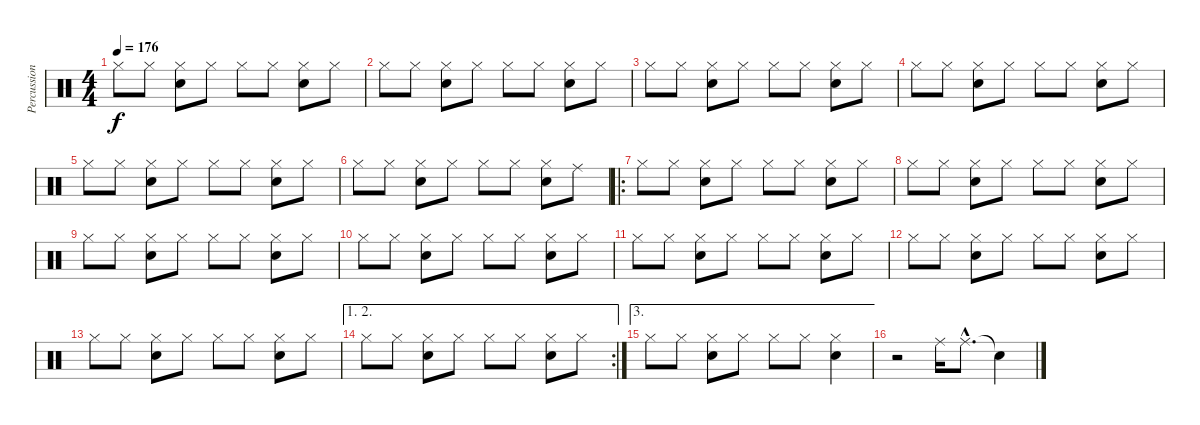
\track ("Percussions" "Percussion") {instrument percussion}
\staff {score}
\articulation defaults
\ts (4 4)
\tempo 176
\clef neutral
\ks c "Hi-Hat (closed)".8{dy f} "Hi-Hat (closed)".8
("Hi-Hat (closed)" "Snare (hit) 2").8 "Hi-Hat (closed)".8 "Hi-Hat (closed)".8 "Hi-Hat (closed)".8 ("Hi-Hat (closed)" "Snare (hit) 2").8 "Hi-Hat (closed)".8 |
"Hi-Hat (closed)".8 "Hi-Hat (closed)".8 ("Hi-Hat (closed)" "Snare (hit) 2").8 "Hi-Hat (closed)".8 "Hi-Hat (closed)".8 "Hi-Hat (closed)".8 ("Hi-Hat (closed)" "Snare (hit) 2").8 "Hi-Hat (closed)".8 |
"Hi-Hat (closed)".8 "Hi-Hat (closed)".8 ("Hi-Hat (closed)" "Snare (hit) 2").8 "Hi-Hat (closed)".8 "Hi-Hat (closed)".8 "Hi-Hat (closed)".8 ("Hi-Hat (closed)" "Snare (hit) 2").8 "Hi-Hat (closed)".8 |
"Hi-Hat (closed)".8 "Hi-Hat (closed)".8 ("Hi-Hat (closed)" "Snare (hit) 2").8 "Hi-Hat (closed)".8 "Hi-Hat (closed)".8 "Hi-Hat (closed)".8 ("Hi-Hat (closed)" "Snare (hit) 2").8 "Hi-Hat (closed)".8 |
"Hi-Hat (closed)".8 "Hi-Hat (closed)".8 ("Hi-Hat (closed)" "Snare (hit) 2").8 "Hi-Hat (closed)".8 "Hi-Hat (closed)".8 "Hi-Hat (closed)".8 ("Hi-Hat (closed)" "Snare (hit) 2").8 "Hi-Hat (closed)".8 |
"Hi-Hat (closed)".8 "Hi-Hat (closed)".8 ("Hi-Hat (closed)" "Snare (hit) 2").8 "Hi-Hat (closed)".8 "Hi-Hat (closed)".8 "Hi-Hat (closed)".8 ("Hi-Hat (closed)" "Snare (hit) 2").8 "Ride (middle)".8 |
\ro "Hi-Hat (closed)".8 "Hi-Hat (closed)".8
("Hi-Hat (closed)" "Snare (hit) 2").8 "Hi-Hat (closed)".8 "Hi-Hat (closed)".8 "Hi-Hat (closed)".8 ("Hi-Hat (closed)" "Snare (hit) 2").8 "Hi-Hat (closed)".8 |
"Hi-Hat (closed)".8 "Hi-Hat (closed)".8 ("Hi-Hat (closed)" "Snare (hit) 2").8 "Hi-Hat (closed)".8 "Hi-Hat (closed)".8 "Hi-Hat (closed)".8 ("Hi-Hat (closed)" "Snare (hit) 2").8 "Hi-Hat (closed)".8 |
"Hi-Hat (closed)".8 "Hi-Hat (closed)".8 ("Hi-Hat (closed)" "Snare (hit) 2").8 "Hi-Hat (closed)".8 "Hi-Hat (closed)".8 "Hi-Hat (closed)".8 ("Hi-Hat (closed)" "Snare (hit) 2").8 "Hi-Hat (closed)".8 |
"Hi-Hat (closed)".8 "Hi-Hat (closed)".8 ("Hi-Hat (closed)" "Snare (hit) 2").8 "Hi-Hat (closed)".8 "Hi-Hat (closed)".8 "Hi-Hat (closed)".8 ("Hi-Hat (closed)" "Snare (hit) 2").8 "Hi-Hat (closed)".8 |
"Hi-Hat (closed)".8 "Hi-Hat (closed)".8 ("Hi-Hat (closed)" "Snare (hit) 2").8 "Hi-Hat (closed)".8 "Hi-Hat (closed)".8 "Hi-Hat (closed)".8 ("Hi-Hat (closed)" "Snare (hit) 2").8 "Hi-Hat (closed)".8 |
"Hi-Hat (closed)".8 "Hi-Hat (closed)".8 ("Hi-Hat (closed)" "Snare (hit) 2").8 "Hi-Hat (closed)".8 "Hi-Hat (closed)".8 "Hi-Hat (closed)".8 ("Hi-Hat (closed)" "Snare (hit) 2").8 "Hi-Hat (closed)".8 |
"Hi-Hat (closed)".8 "Hi-Hat (closed)".8 ("Hi-Hat (closed)" "Snare (hit) 2").8 "Hi-Hat (closed)".8 "Hi-Hat (closed)".8 "Hi-Hat (closed)".8 ("Hi-Hat (closed)" "Snare (hit) 2").8 "Hi-Hat (closed)".8 |
\ae (1 2)
\rc 2 "Hi-Hat (closed)".8 "Hi-Hat (closed)".8
("Hi-Hat (closed)" "Snare (hit) 2").8 "Hi-Hat (closed)".8 "Hi-Hat (closed)".8 "Hi-Hat (closed)".8 ("Hi-Hat (closed)" "Snare (hit) 2").8 "Hi-Hat (closed)".8 |
\ae 3 "Hi-Hat (closed)".8 "Hi-Hat (closed)".8
("Hi-Hat (closed)" "Snare (hit) 2").8 "Hi-Hat (closed)".8 "Hi-Hat (closed)".8 "Hi-Hat (closed)".8 ("Hi-Hat (closed)" "Snare (hit) 2").4 |
r.2 "Ride (middle)".16 "Ride (middle)"{hac}.8{d} "Snare (hit)"{t}.4
